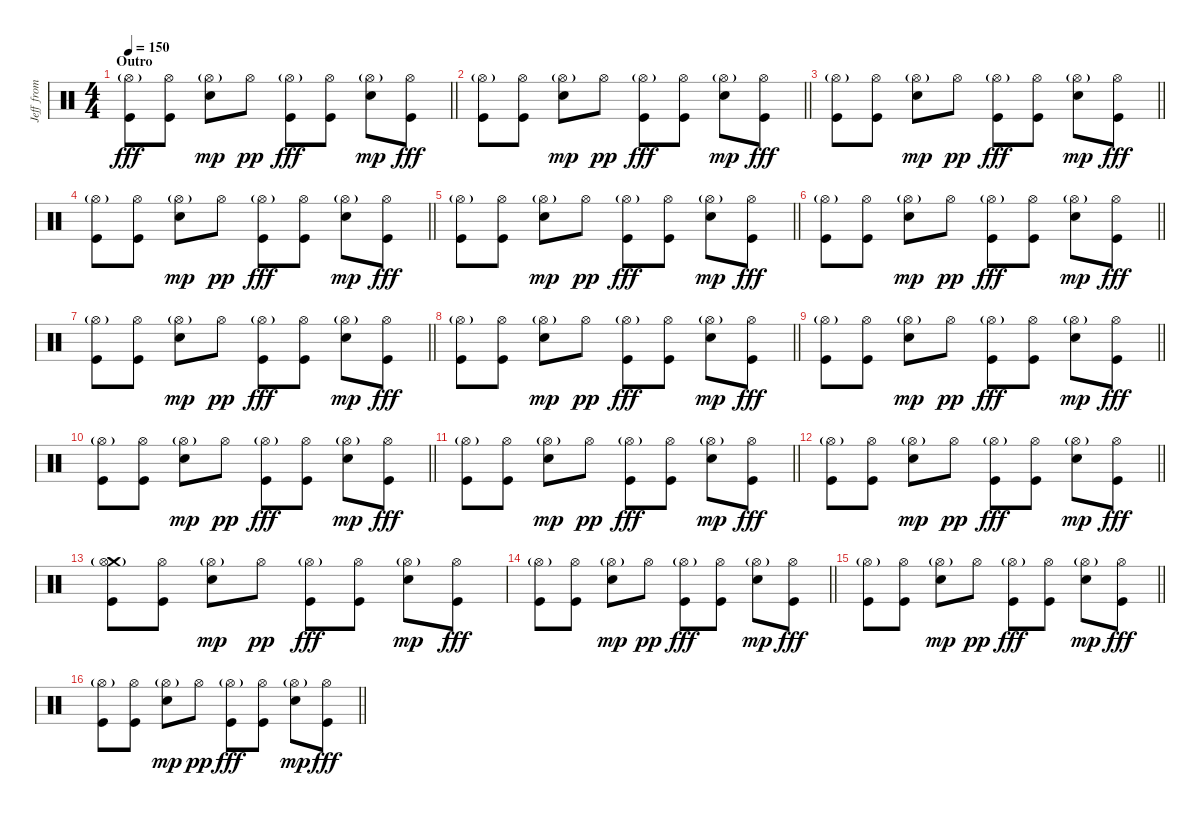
\track ("Jeff from Chelsea - Drum" "Jeff from ") {instrument percussion bank 27}
\staff {score}
\articulation defaults
\ts (4 4)
\section ("" "Outro")
\tempo 150
\clef neutral
\barLineRight lightlight
\ks c
("Hi-Hat (open)"{g} "Kick (hit)").8{dy fff} ("Hi-Hat (open)" "Kick (hit)").8 ("Hi-Hat (open)"{g} "Snare (hit) 2").8{dy mp} "Hi-Hat (open)".8{dy pp} ("Hi-Hat (open)"{g} "Kick (hit)").8{dy fff} ("Hi-Hat (open)" "Kick (hit)").8 ("Hi-Hat (open)"{g} "Snare (hit) 2").8{dy mp} ("Hi-Hat (open)" "Kick (hit)").8{dy fff} |
\barLineRight lightlight
("Hi-Hat (open)"{g} "Kick (hit)").8 ("Hi-Hat (open)" "Kick (hit)").8 ("Hi-Hat (open)"{g} "Snare (hit) 2").8{dy mp} "Hi-Hat (open)".8{dy pp} ("Hi-Hat (open)"{g} "Kick (hit)").8{dy fff} ("Hi-Hat (open)" "Kick (hit)").8 ("Hi-Hat (open)"{g} "Snare (hit) 2").8{dy mp} ("Hi-Hat (open)" "Kick (hit)").8{dy fff} |
\barLineRight lightlight
("Hi-Hat (open)"{g} "Kick (hit)").8 ("Hi-Hat (open)" "Kick (hit)").8 ("Hi-Hat (open)"{g} "Snare (hit) 2").8{dy mp} "Hi-Hat (open)".8{dy pp} ("Hi-Hat (open)"{g} "Kick (hit)").8{dy fff} ("Hi-Hat (open)" "Kick (hit)").8 ("Hi-Hat (open)"{g} "Snare (hit) 2").8{dy mp} ("Hi-Hat (open)" "Kick (hit)").8{dy fff} |
\barLineRight lightlight
("Hi-Hat (open)"{g} "Kick (hit)").8 ("Hi-Hat (open)" "Kick (hit)").8 ("Hi-Hat (open)"{g} "Snare (hit) 2").8{dy mp} "Hi-Hat (open)".8{dy pp} ("Hi-Hat (open)"{g} "Kick (hit)").8{dy fff} ("Hi-Hat (open)" "Kick (hit)").8 ("Hi-Hat (open)"{g} "Snare (hit) 2").8{dy mp} ("Hi-Hat (open)" "Kick (hit)").8{dy fff} |
\barLineRight lightlight
("Hi-Hat (open)"{g} "Kick (hit)").8 ("Hi-Hat (open)" "Kick (hit)").8 ("Hi-Hat (open)"{g} "Snare (hit) 2").8{dy mp} "Hi-Hat (open)".8{dy pp} ("Hi-Hat (open)"{g} "Kick (hit)").8{dy fff} ("Hi-Hat (open)" "Kick (hit)").8 ("Hi-Hat (open)"{g} "Snare (hit) 2").8{dy mp} ("Hi-Hat (open)" "Kick (hit)").8{dy fff} |
\barLineRight lightlight
("Hi-Hat (open)"{g} "Kick (hit)").8 ("Hi-Hat (open)" "Kick (hit)").8 ("Hi-Hat (open)"{g} "Snare (hit) 2").8{dy mp} "Hi-Hat (open)".8{dy pp} ("Hi-Hat (open)"{g} "Kick (hit)").8{dy fff} ("Hi-Hat (open)" "Kick (hit)").8 ("Hi-Hat (open)"{g} "Snare (hit) 2").8{dy mp} ("Hi-Hat (open)" "Kick (hit)").8{dy fff} |
\barLineRight lightlight
("Hi-Hat (open)"{g} "Kick (hit)").8 ("Hi-Hat (open)" "Kick (hit)").8 ("Hi-Hat (open)"{g} "Snare (hit) 2").8{dy mp} "Hi-Hat (open)".8{dy pp} ("Hi-Hat (open)"{g} "Kick (hit)").8{dy fff} ("Hi-Hat (open)" "Kick (hit)").8 ("Hi-Hat (open)"{g} "Snare (hit) 2").8{dy mp} ("Hi-Hat (open)" "Kick (hit)").8{dy fff} |
\barLineRight lightlight
("Hi-Hat (open)"{g} "Kick (hit)").8 ("Hi-Hat (open)" "Kick (hit)").8 ("Hi-Hat (open)"{g} "Snare (hit) 2").8{dy mp} "Hi-Hat (open)".8{dy pp} ("Hi-Hat (open)"{g} "Kick (hit)").8{dy fff} ("Hi-Hat (open)" "Kick (hit)").8 ("Hi-Hat (open)"{g} "Snare (hit) 2").8{dy mp} ("Hi-Hat (open)" "Kick (hit)").8{dy fff} |
\barLineRight lightlight
("Hi-Hat (open)"{g} "Kick (hit)").8 ("Hi-Hat (open)" "Kick (hit)").8 ("Hi-Hat (open)"{g} "Snare (hit) 2").8{dy mp} "Hi-Hat (open)".8{dy pp} ("Hi-Hat (open)"{g} "Kick (hit)").8{dy fff} ("Hi-Hat (open)" "Kick (hit)").8 ("Hi-Hat (open)"{g} "Snare (hit) 2").8{dy mp} ("Hi-Hat (open)" "Kick (hit)").8{dy fff} |
\barLineRight lightlight
("Hi-Hat (open)"{g} "Kick (hit)").8 ("Hi-Hat (open)" "Kick (hit)").8 ("Hi-Hat (open)"{g} "Snare (hit) 2").8{dy mp} "Hi-Hat (open)".8{dy pp} ("Hi-Hat (open)"{g} "Kick (hit)").8{dy fff} ("Hi-Hat (open)" "Kick (hit)").8 ("Hi-Hat (open)"{g} "Snare (hit) 2").8{dy mp} ("Hi-Hat (open)" "Kick (hit)").8{dy fff} |
\barLineRight lightlight
("Hi-Hat (open)"{g} "Kick (hit)").8 ("Hi-Hat (open)" "Kick (hit)").8 ("Hi-Hat (open)"{g} "Snare (hit) 2").8{dy mp} "Hi-Hat (open)".8{dy pp} ("Hi-Hat (open)"{g} "Kick (hit)").8{dy fff} ("Hi-Hat (open)" "Kick (hit)").8 ("Hi-Hat (open)"{g} "Snare (hit) 2").8{dy mp} ("Hi-Hat (open)" "Kick (hit)").8{dy fff} |
\barLineRight lightlight
("Hi-Hat (open)"{g} "Kick (hit)").8 ("Hi-Hat (open)" "Kick (hit)").8 ("Hi-Hat (open)"{g} "Snare (hit) 2").8{dy mp} "Hi-Hat (open)".8{dy pp} ("Hi-Hat (open)"{g} "Kick (hit)").8{dy fff} ("Hi-Hat (open)" "Kick (hit)").8 ("Hi-Hat (open)"{g} "Snare (hit) 2").8{dy mp} ("Hi-Hat (open)" "Kick (hit)").8{dy fff} |
("Crash medium (hit)" "Hi-Hat (open)"{g} "Kick (hit)").8 ("Hi-Hat (open)" "Kick (hit)").8 ("Hi-Hat (open)"{g} "Snare (hit) 2").8{dy mp} "Hi-Hat (open)".8{dy pp} ("Hi-Hat (open)"{g} "Kick (hit)").8{dy fff} ("Hi-Hat (open)" "Kick (hit)").8 ("Hi-Hat (open)"{g} "Snare (hit) 2").8{dy mp} ("Hi-Hat (open)" "Kick (hit)").8{dy fff} |
\barLineRight lightlight
("Hi-Hat (open)"{g} "Kick (hit)").8 ("Hi-Hat (open)" "Kick (hit)").8 ("Hi-Hat (open)"{g} "Snare (hit) 2").8{dy mp} "Hi-Hat (open)".8{dy pp} ("Hi-Hat (open)"{g} "Kick (hit)").8{dy fff} ("Hi-Hat (open)" "Kick (hit)").8 ("Hi-Hat (open)"{g} "Snare (hit) 2").8{dy mp} ("Hi-Hat (open)" "Kick (hit)").8{dy fff} |
\barLineRight lightlight
("Hi-Hat (open)"{g} "Kick (hit)").8 ("Hi-Hat (open)" "Kick (hit)").8 ("Hi-Hat (open)"{g} "Snare (hit) 2").8{dy mp} "Hi-Hat (open)".8{dy pp} ("Hi-Hat (open)"{g} "Kick (hit)").8{dy fff} ("Hi-Hat (open)" "Kick (hit)").8 ("Hi-Hat (open)"{g} "Snare (hit) 2").8{dy mp} ("Hi-Hat (open)" "Kick (hit)").8{dy fff} |
\barLineRight lightlight
("Hi-Hat (open)"{g} "Kick (hit)").8 ("Hi-Hat (open)" "Kick (hit)").8 ("Hi-Hat (open)"{g} "Snare (hit) 2").8{dy mp} "Hi-Hat (open)".8{dy pp} ("Hi-Hat (open)"{g} "Kick (hit)").8{dy fff} ("Hi-Hat (open)" "Kick (hit)").8 ("Hi-Hat (open)"{g} "Snare (hit) 2").8{dy mp} ("Hi-Hat (open)" "Kick (hit)").8{dy fff}
